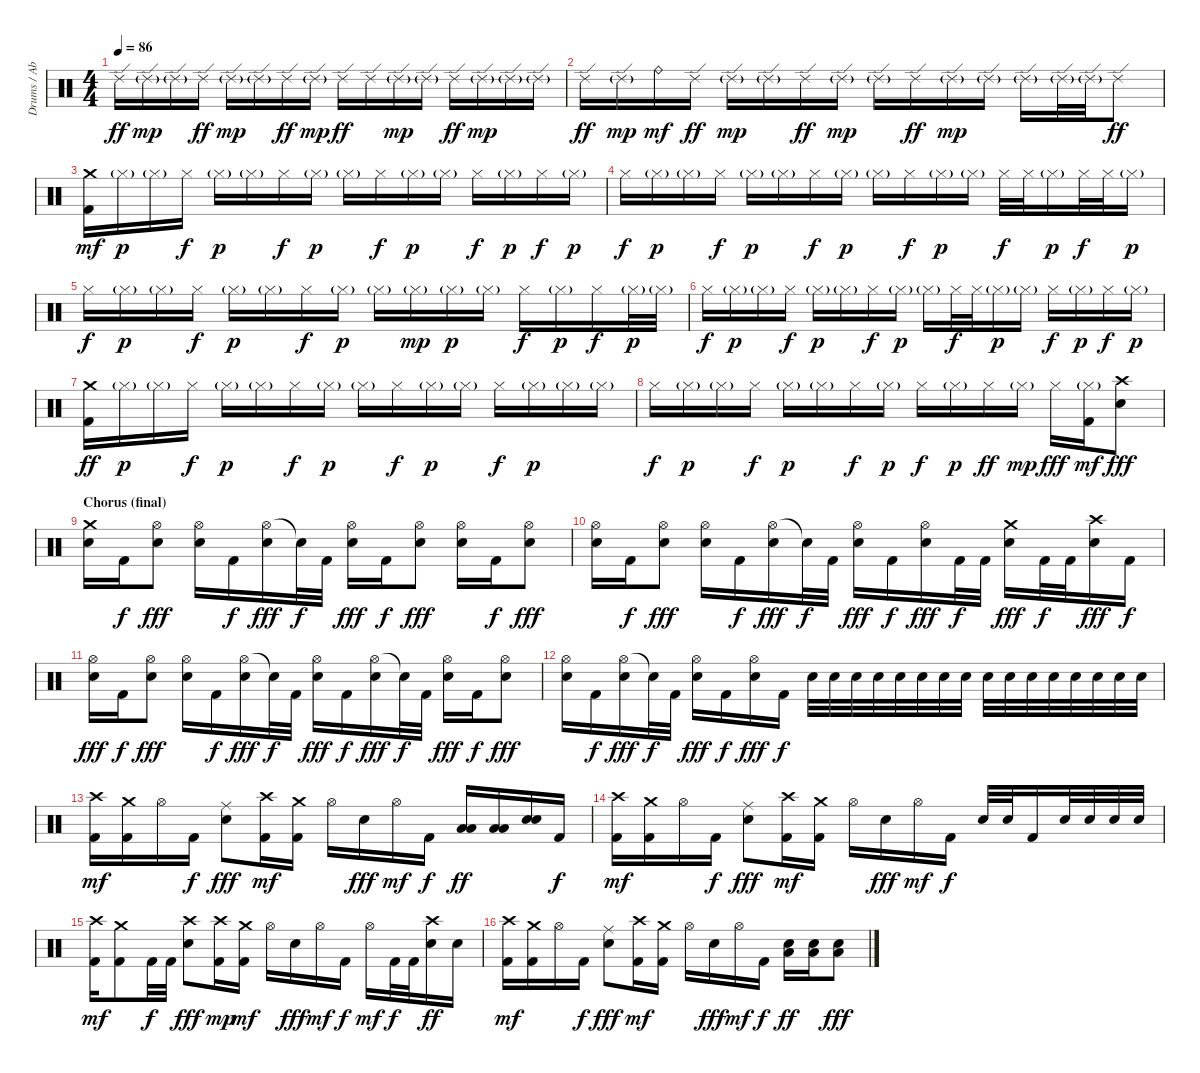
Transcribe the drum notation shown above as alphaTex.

\track ("Drums / Abe Cunningham" "Drums / Ab") {instrument percussion}
\staff {score}
\articulation defaults
\ts (4 4)
\tempo 86
\clef neutral
\ks c "Ride (edge) 2".16{dy ff} "Ride (edge) 2"{g}.16{dy mp} "Ride (edge) 2"{g}.16 "Ride (edge) 2".16{dy ff} "Ride (edge) 2"{g}.16{dy mp} "Ride (edge) 2"{g}.16 "Ride (edge) 2".16{dy ff} "Ride (edge) 2"{g}.16{dy mp} "Ride (edge) 2".16{dy ff} "Ride (edge) 2".16 "Ride (edge) 2"{g}.16{dy mp} "Ride (edge) 2"{g}.16 "Ride (edge) 2".16{dy ff} "Ride (edge) 2"{g}.16{dy mp} "Ride (edge) 2"{g}.16 "Ride (edge) 2"{g}.16
|
"Ride (edge) 2".16{dy ff} "Ride (edge) 2"{g}.16{dy mp} "Ride (bell)".16{dy mf} "Ride (edge) 2".16{dy ff} "Ride (edge) 2"{g}.16{dy mp} "Ride (edge) 2"{g}.16 "Ride (edge) 2".16{dy ff} "Ride (edge) 2"{g}.16{dy mp} "Ride (edge) 2"{g}.16 "Ride (edge) 2".16{dy ff} "Ride (edge) 2"{g}.16{dy mp} "Ride (edge) 2"{g}.16 "Ride (edge) 2"{g}.16 "Ride (edge) 2"{g}.32 "Ride (edge) 2"{g}.32 "Ride (edge) 2".8{dy ff} |
("Crash medium (hit)" "Kick (hit) 2").16{dy mf} "Hi-Hat (closed)"{g}.16{dy p} "Hi-Hat (closed)"{g}.16 "Hi-Hat (closed)".16{dy f} "Hi-Hat (closed)"{g}.16{dy p} "Hi-Hat (closed)"{g}.16 "Hi-Hat (closed)".16{dy f} "Hi-Hat (closed)"{g}.16{dy p} "Hi-Hat (closed)"{g}.16 "Hi-Hat (closed)".16{dy f} "Hi-Hat (closed)"{g}.16{dy p} "Hi-Hat (closed)"{g}.16 "Hi-Hat (closed)".16{dy f} "Hi-Hat (closed)"{g}.16{dy p} "Hi-Hat (closed)".16{dy f} "Hi-Hat (closed)"{g}.16{dy p} |
"Hi-Hat (closed)".16{dy f} "Hi-Hat (closed)"{g}.16{dy p} "Hi-Hat (closed)"{g}.16 "Hi-Hat (closed)".16{dy f} "Hi-Hat (closed)"{g}.16{dy p} "Hi-Hat (closed)"{g}.16 "Hi-Hat (closed)".16{dy f} "Hi-Hat (closed)"{g}.16{dy p} "Hi-Hat (closed)"{g}.16 "Hi-Hat (closed)".16{dy f} "Hi-Hat (closed)"{g}.16{dy p} "Hi-Hat (closed)"{g}.16 "Hi-Hat (closed)".32{dy f} "Hi-Hat (closed)".32 "Hi-Hat (closed)"{g}.16{dy p} "Hi-Hat (closed)".32{dy f} "Hi-Hat (closed)".32 "Hi-Hat (closed)"{g}.16{dy p} |
"Hi-Hat (closed)".16{dy f} "Hi-Hat (closed)"{g}.16{dy p} "Hi-Hat (closed)"{g}.16 "Hi-Hat (closed)".16{dy f} "Hi-Hat (closed)"{g}.16{dy p} "Hi-Hat (closed)"{g}.16 "Hi-Hat (closed)".16{dy f} "Hi-Hat (closed)"{g}.16{dy p} "Hi-Hat (closed)"{g}.16 "Hi-Hat (closed)"{g}.16{dy mp} "Hi-Hat (closed)"{g}.16{dy p} "Hi-Hat (closed)"{g}.16 "Hi-Hat (closed)".16{dy f} "Hi-Hat (closed)"{g}.16{dy p} "Hi-Hat (closed)".16{dy f} "Hi-Hat (closed)"{g}.32{dy p} "Hi-Hat (closed)"{g}.32 |
"Hi-Hat (closed)".16{dy f} "Hi-Hat (closed)"{g}.16{dy p} "Hi-Hat (closed)"{g}.16 "Hi-Hat (closed)".16{dy f} "Hi-Hat (closed)"{g}.16{dy p} "Hi-Hat (closed)"{g}.16 "Hi-Hat (closed)".16{dy f} "Hi-Hat (closed)"{g}.16{dy p} "Hi-Hat (closed)"{g}.16 "Hi-Hat (closed)".32{dy f} "Hi-Hat (closed)".32 "Hi-Hat (closed)"{g}.16{dy p} "Hi-Hat (closed)"{g}.16 "Hi-Hat (closed)".16{dy f} "Hi-Hat (closed)"{g}.16{dy p} "Hi-Hat (closed)".16{dy f} "Hi-Hat (closed)"{g}.16{dy p} |
("Crash medium (hit)" "Kick (hit) 2").16{dy ff volume 15} "Hi-Hat (closed)"{g}.16{dy p} "Hi-Hat (closed)"{g}.16 "Hi-Hat (closed)".16{dy f} "Hi-Hat (closed)"{g}.16{dy p} "Hi-Hat (closed)"{g}.16 "Hi-Hat (closed)".16{dy f} "Hi-Hat (closed)"{g}.16{dy p} "Hi-Hat (closed)"{g}.16 "Hi-Hat (closed)".16{dy f} "Hi-Hat (closed)"{g}.16{dy p} "Hi-Hat (closed)"{g}.16 "Hi-Hat (closed)".16{dy f} "Hi-Hat (closed)"{g}.16{dy p} "Hi-Hat (closed)"{g}.16 "Hi-Hat (closed)"{g}.16 |
"Hi-Hat (closed)".16{dy f} "Hi-Hat (closed)"{g}.16{dy p} "Hi-Hat (closed)"{g}.16 "Hi-Hat (closed)".16{dy f} "Hi-Hat (closed)"{g}.16{dy p} "Hi-Hat (closed)"{g}.16 "Hi-Hat (closed)".16{dy f} "Hi-Hat (closed)"{g}.16{dy p} "Hi-Hat (closed)".16{dy f} "Hi-Hat (closed)"{g}.16{dy p} "Hi-Hat (closed)".16{dy ff} "Hi-Hat (closed)"{g}.16{dy mp} "Hi-Hat (closed)".16{dy fff} ("Hi-Hat (closed)"{g} "Kick (hit) 2").16{dy mf} ("Crash high (hit)" "Electric Snare (hit)").8{dy fff} |
\section ("" "Chorus (final)")
("Crash medium (hit)" "Electric Snare (hit)").16 "Kick (hit) 2".16{dy f} ("Hi-Hat (open)" "Electric Snare (hit)").8{dy fff} ("Hi-Hat (open)" "Electric Snare (hit)").16 "Kick (hit) 2".16{dy f} ("Hi-Hat (open)" "Electric Snare (hit)").16{dy fff} "Snare (hit)"{t}.32{dy f} "Kick (hit) 2".32 ("Hi-Hat (open)" "Electric Snare (hit)").16{dy fff} "Kick (hit) 2".16{dy f} ("Hi-Hat (open)" "Electric Snare (hit)").8{dy fff} ("Hi-Hat (open)" "Electric Snare (hit)").16 "Kick (hit) 2".16{dy f} ("Hi-Hat (open)" "Electric Snare (hit)").8{dy fff} |
("Hi-Hat (open)" "Electric Snare (hit)").16 "Kick (hit) 2".16{dy f} ("Hi-Hat (open)" "Electric Snare (hit)").8{dy fff} ("Hi-Hat (open)" "Electric Snare (hit)").16 "Kick (hit) 2".16{dy f} ("Hi-Hat (open)" "Electric Snare (hit)").16{dy fff} "Snare (hit)"{t}.32{dy f} "Kick (hit) 2".32 ("Hi-Hat (open)" "Electric Snare (hit)").16{dy fff} "Kick (hit) 2".16{dy f} ("Hi-Hat (open)" "Electric Snare (hit)").16{dy fff} "Kick (hit) 2".32{dy f} "Kick (hit) 2".32 ("Crash medium (hit)" "Electric Snare (hit)").16{dy fff} "Kick (hit) 2".32{dy f} "Kick (hit) 2".32 ("Crash high (hit)" "Electric Snare (hit)").16{dy fff} "Kick (hit) 2".16{dy f} |
("Hi-Hat (open)" "Electric Snare (hit)").16{dy fff} "Kick (hit) 2".16{dy f} ("Hi-Hat (open)" "Electric Snare (hit)").8{dy fff} ("Hi-Hat (open)" "Electric Snare (hit)").16 "Kick (hit) 2".16{dy f} ("Hi-Hat (open)" "Electric Snare (hit)").16{dy fff} "Snare (hit)"{t}.32{dy f} "Kick (hit) 2".32 ("Hi-Hat (open)" "Electric Snare (hit)").16{dy fff} "Kick (hit) 2".16{dy f} ("Hi-Hat (open)" "Electric Snare (hit)").16{dy fff} "Snare (hit)"{t}.32{dy f} "Kick (hit) 2".32 ("Hi-Hat (open)" "Electric Snare (hit)").16{dy fff} "Kick (hit) 2".16{dy f} ("Hi-Hat (open)" "Electric Snare (hit)").8{dy fff} |
("Hi-Hat (open)" "Electric Snare (hit)").16 "Kick (hit) 2".16{dy f} ("Hi-Hat (open)" "Electric Snare (hit)").16{dy fff} "Snare (hit)"{t}.32{dy f} "Kick (hit) 2".32 ("Hi-Hat (open)" "Electric Snare (hit)").16{dy fff} "Kick (hit) 2".16{dy f} ("Hi-Hat (open)" "Electric Snare (hit)").16{dy fff} "Kick (hit) 2".16{dy f} "Electric Snare (hit)".32 "Electric Snare (hit)".32 "Electric Snare (hit)".32 "Electric Snare (hit)".32 "Electric Snare (hit)".32 "Electric Snare (hit)".32 "Electric Snare (hit)".32 "Electric Snare (hit)".32 "Electric Snare (hit)".32 "Electric Snare (hit)".32 "Electric Snare (hit)".32 "Electric Snare (hit)".32 "Electric Snare (hit)".32 "Electric Snare (hit)".32 "Electric Snare (hit)".32 "Electric Snare (hit)".32 |
("Crash high (hit)" "Kick (hit) 2").16{dy mf} ("Crash medium (hit)" "Kick (hit) 2").16 "Hi-Hat (open)".16 "Kick (hit) 2".16{dy f} ("Ride (middle)" "Electric Snare (hit)").8{dy fff} ("Crash high (hit)" "Kick (hit) 2").16{dy mf} ("Crash medium (hit)" "Kick (hit) 2").16 "Hi-Hat (open)".16 "Electric Snare (hit)".16{dy fff} "Hi-Hat (open)".16{dy mf} "Kick (hit) 2".16{dy f} ("Low Tom (hit)" "Low Floor Tom (hit)").16{bd 30 dy ff} ("Low Tom (hit)" "Low Floor Tom (hit)").16{bd 30} ("Electric Snare (hit)" "Electric Snare (hit)").16{bd 60} "Kick (hit) 2".16{dy f} |
("Crash high (hit)" "Kick (hit) 2").16{dy mf} ("Crash medium (hit)" "Kick (hit) 2").16 "Hi-Hat (open)".16 "Kick (hit) 2".16{dy f} ("Ride (middle)" "Electric Snare (hit)").8{dy fff} ("Crash high (hit)" "Kick (hit) 2").16{dy mf} ("Crash medium (hit)" "Kick (hit) 2").16 "Hi-Hat (open)".16 "Electric Snare (hit)".16{dy fff} "Hi-Hat (open)".16{dy mf} "Kick (hit) 2".16{dy f} "Electric Snare (hit)".32 "Electric Snare (hit)".32 "Kick (hit) 2".16 "Electric Snare (hit)".32 "Electric Snare (hit)".32 "Electric Snare (hit)".32 "Electric Snare (hit)".32 |
("Crash high (hit)" "Kick (hit) 2").16{dy mf} ("Crash medium (hit)" "Kick (hit) 2").8 "Kick (hit) 2".32{dy f} "Kick (hit) 2".32 ("Crash high (hit)" "Electric Snare (hit)").8{dy fff} ("Crash high (hit)" "Kick (hit) 2").16{dy mp} ("Crash medium (hit)" "Kick (hit) 2").16{dy mf} "Hi-Hat (open)".16 "Electric Snare (hit)".16{dy fff} "Hi-Hat (open)".16{dy mf} "Kick (hit) 2".16{dy f} "Hi-Hat (open)".16{dy mf} "Kick (hit) 2".32{dy f} "Kick (hit) 2".32 ("Crash high (hit)" "Electric Snare (hit)").16{dy ff} "Electric Snare (hit)".16 |
("Crash high (hit)" "Kick (hit) 2").16{dy mf} ("Crash medium (hit)" "Kick (hit) 2").16 "Hi-Hat (open)".16 "Kick (hit) 2".16{dy f} ("Ride (middle)" "Electric Snare (hit)").8{dy fff} ("Crash high (hit)" "Kick (hit) 2").16{dy mf} ("Crash medium (hit)" "Kick (hit) 2").16 "Hi-Hat (open)".16 "Electric Snare (hit)".16{dy fff} "Hi-Hat (open)".16{dy mf} "Kick (hit) 2".16{dy f} ("Electric Snare (hit)" "Low Floor Tom (hit)").16{bd 30 dy ff} ("Electric Snare (hit)" "Low Floor Tom (hit)").16{bd 30} ("Electric Snare (hit)" "Low Floor Tom (hit)").8{bd 30 dy fff}
